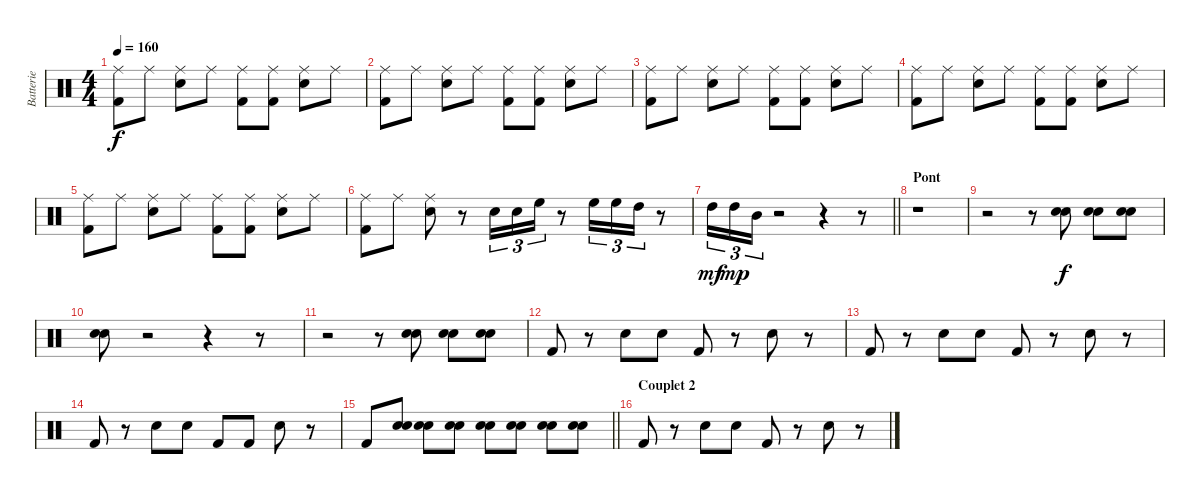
\track ("Batterie" "Batterie") {instrument percussion}
\staff {score}
\articulation defaults
\ts (4 4)
\tempo 160
\clef neutral
\ks c
("Kick (hit) 2" "Ride (middle)").8{dy f} "Ride (middle)".8 ("Snare (hit) 2" "Ride (middle)").8 "Ride (middle)".8 ("Kick (hit) 2" "Ride (middle)").8 ("Kick (hit) 2" "Ride (middle)").8 ("Snare (hit) 2" "Ride (middle)").8 "Ride (middle)".8 |
("Kick (hit) 2" "Ride (middle)").8 "Ride (middle)".8 ("Snare (hit) 2" "Ride (middle)").8 "Ride (middle)".8 ("Kick (hit) 2" "Ride (middle)").8 ("Kick (hit) 2" "Ride (middle)").8 ("Snare (hit) 2" "Ride (middle)").8 "Ride (middle)".8 |
("Kick (hit) 2" "Ride (middle)").8 "Ride (middle)".8 ("Snare (hit) 2" "Ride (middle)").8 "Ride (middle)".8 ("Kick (hit) 2" "Ride (middle)").8 ("Kick (hit) 2" "Ride (middle)").8 ("Snare (hit) 2" "Ride (middle)").8 "Ride (middle)".8 |
("Kick (hit) 2" "Ride (middle)").8 "Ride (middle)".8 ("Snare (hit) 2" "Ride (middle)").8 "Ride (middle)".8 ("Kick (hit) 2" "Ride (middle)").8 ("Kick (hit) 2" "Ride (middle)").8 ("Snare (hit) 2" "Ride (middle)").8 "Ride (middle)".8 |
("Kick (hit) 2" "Ride (middle)").8 "Ride (middle)".8 ("Snare (hit) 2" "Ride (middle)").8 "Ride (middle)".8 ("Kick (hit) 2" "Ride (middle)").8 ("Kick (hit) 2" "Ride (middle)").8 ("Snare (hit) 2" "Ride (middle)").8 "Ride (middle)".8 |
("Kick (hit) 2" "Ride (middle)").8 "Ride (middle)".8 ("Snare (hit) 2" "Ride (middle)").8 r.8 "Electric Snare (hit)".16{tu (3 2)} "Electric Snare (hit)".16{tu (3 2)} "High Floor Tom (hit)".16{tu (3 2)} r.8 "High Floor Tom (hit)".16{tu (3 2)} "High Floor Tom (hit)".16{tu (3 2)} "High Tom (hit)".16{tu (3 2)} r.8 |
\barLineRight lightlight "High Tom (hit)".16{tu (3 2) dy mf} "High Tom (hit)".16{tu (3 2) dy mp} "Mid Tom (hit)".16{tu (3 2)}
r.2 r.4 r.8 |
\section ("" "Pont")
r.1 |
r.2 r.8 ("Snare (hit) 2" "Snare (hit) 2").8{dy f} ("Snare (hit) 2" "Snare (hit) 2").8 ("Snare (hit) 2" "Snare (hit) 2").8 |
("Snare (hit) 2" "Snare (hit) 2").8 r.2 r.4 r.8 |
r.2 r.8 ("Snare (hit) 2" "Snare (hit) 2").8 ("Snare (hit) 2" "Snare (hit) 2").8 ("Snare (hit) 2" "Snare (hit) 2").8 |
"Kick (hit) 2".8 r.8 "Snare (hit) 2".8 "Snare (hit) 2".8 "Kick (hit) 2".8 r.8 "Snare (hit) 2".8 r.8 |
"Kick (hit) 2".8 r.8 "Snare (hit) 2".8 "Snare (hit) 2".8 "Kick (hit) 2".8 r.8 "Snare (hit) 2".8 r.8 |
"Kick (hit) 2".8 r.8 "Snare (hit) 2".8 "Snare (hit) 2".8 "Kick (hit) 2".8 "Kick (hit) 2".8 "Snare (hit) 2".8 r.8 |
\barLineRight lightlight "Kick (hit) 2".8
("Snare (hit) 2" "Snare (hit) 2").8 ("Snare (hit) 2" "Snare (hit) 2").8 ("Snare (hit) 2" "Snare (hit) 2").8 ("Snare (hit) 2" "Snare (hit) 2").8 ("Snare (hit) 2" "Snare (hit) 2").8 ("Snare (hit) 2" "Snare (hit) 2").8 ("Snare (hit) 2" "Snare (hit) 2").8 |
\section ("" "Couplet 2")
"Kick (hit) 2".8 r.8 "Snare (hit) 2".8 "Snare (hit) 2".8 "Kick (hit) 2".8 r.8 "Snare (hit) 2".8 r.8
